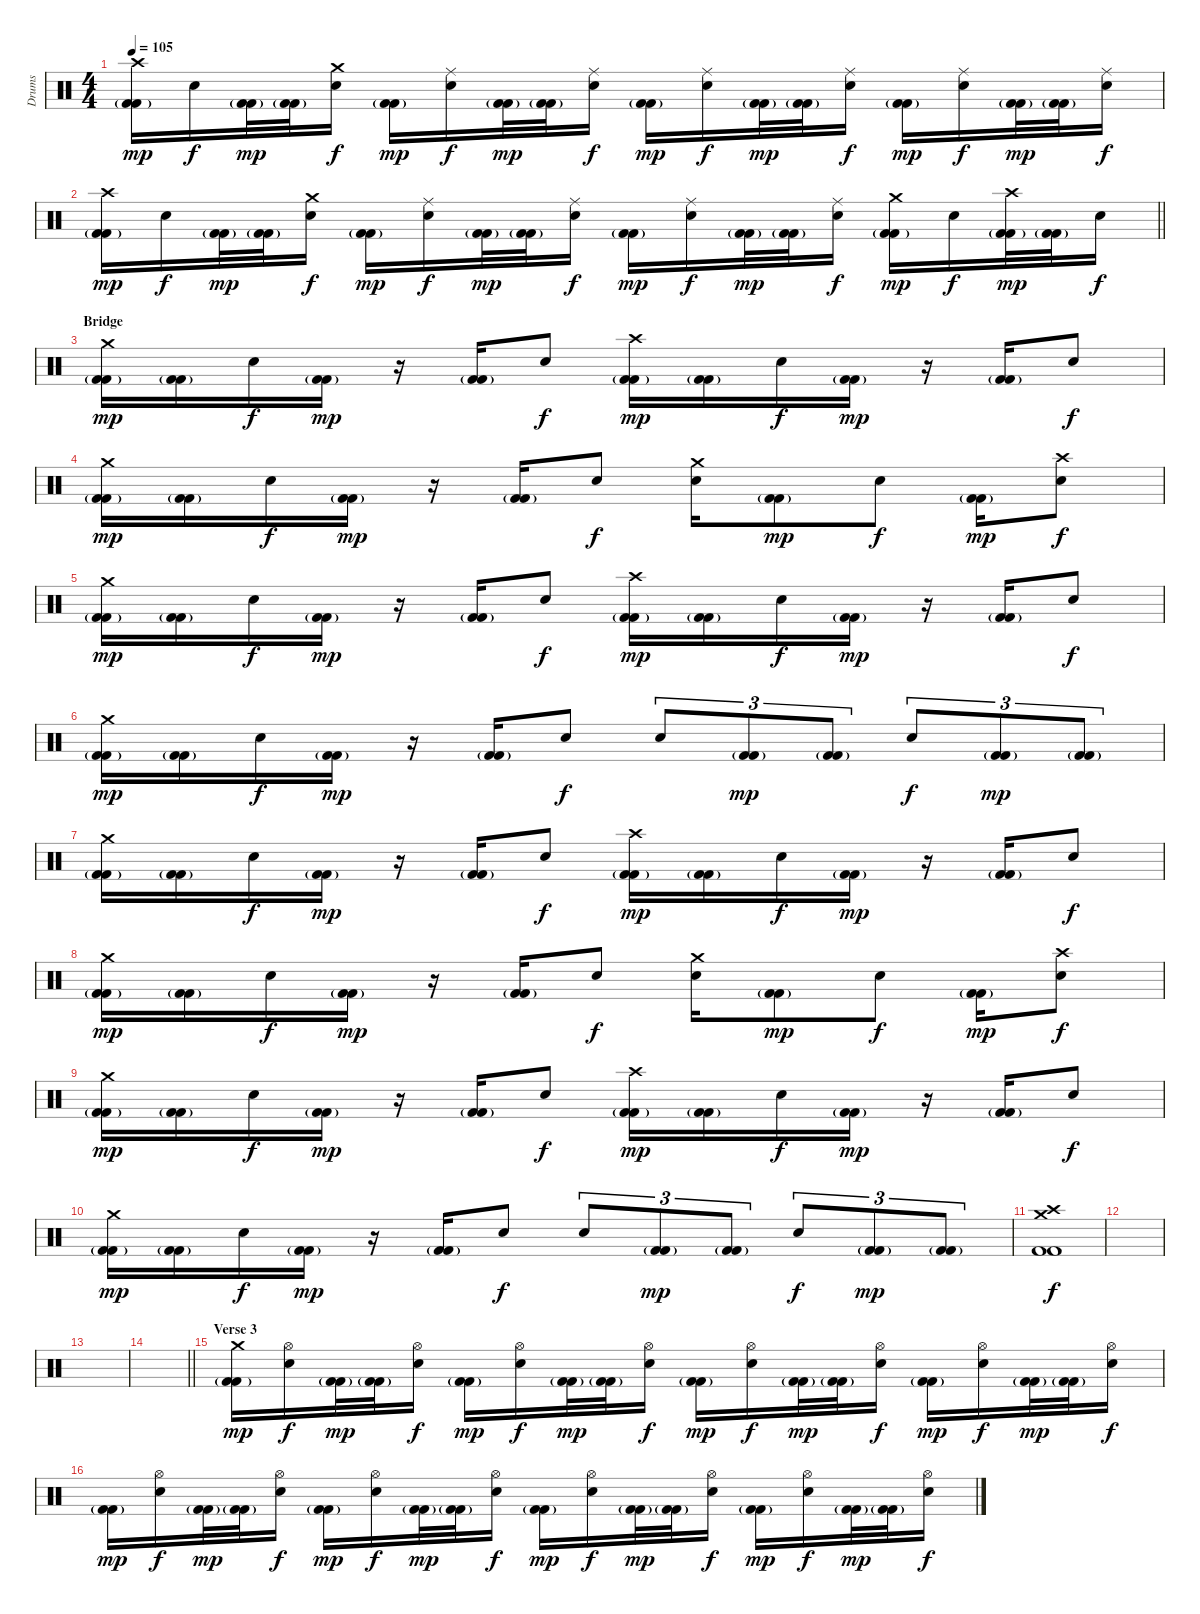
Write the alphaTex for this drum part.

\track ("Drums" "Drums") {instrument percussion}
\staff {score}
\articulation defaults
\ts (4 4)
\tempo 105
\clef neutral
\ks c
("Crash high (hit)" "Kick (hit) 2"{g} "Kick (hit) 2").16{dy mp} "Electric Snare (hit)".16{dy f} ("Kick (hit) 2"{g} "Kick (hit) 2").32{dy mp} ("Kick (hit) 2"{g} "Kick (hit) 2").32 ("Crash medium (hit)" "Electric Snare (hit)").16{dy f} ("Kick (hit) 2"{g} "Kick (hit) 2").16{dy mp} ("Ride (middle)" "Electric Snare (hit)").16{dy f} ("Kick (hit) 2"{g} "Kick (hit) 2").32{dy mp} ("Kick (hit) 2"{g} "Kick (hit) 2").32 ("Ride (middle)" "Electric Snare (hit)").16{dy f} ("Kick (hit) 2"{g} "Kick (hit) 2").16{dy mp} ("Ride (middle)" "Electric Snare (hit)").16{dy f} ("Kick (hit) 2"{g} "Kick (hit) 2").32{dy mp} ("Kick (hit) 2"{g} "Kick (hit) 2").32 ("Ride (middle)" "Electric Snare (hit)").16{dy f} ("Kick (hit) 2"{g} "Kick (hit) 2").16{dy mp} ("Ride (middle)" "Electric Snare (hit)").16{dy f} ("Kick (hit) 2"{g} "Kick (hit) 2").32{dy mp} ("Kick (hit) 2"{g} "Kick (hit) 2").32 ("Ride (middle)" "Electric Snare (hit)").16{dy f} |
\barLineRight lightlight
("Crash high (hit)" "Kick (hit) 2"{g} "Kick (hit) 2").16{dy mp} "Electric Snare (hit)".16{dy f} ("Kick (hit) 2"{g} "Kick (hit) 2").32{dy mp} ("Kick (hit) 2"{g} "Kick (hit) 2").32 ("Crash medium (hit)" "Electric Snare (hit)").16{dy f} ("Kick (hit) 2"{g} "Kick (hit) 2").16{dy mp} ("Ride (middle)" "Electric Snare (hit)").16{dy f} ("Kick (hit) 2"{g} "Kick (hit) 2").32{dy mp} ("Kick (hit) 2"{g} "Kick (hit) 2").32 ("Ride (middle)" "Electric Snare (hit)").16{dy f} ("Kick (hit) 2"{g} "Kick (hit) 2").16{dy mp} ("Ride (middle)" "Electric Snare (hit)").16{dy f} ("Kick (hit) 2"{g} "Kick (hit) 2").32{dy mp} ("Kick (hit) 2"{g} "Kick (hit) 2").32 ("Ride (middle)" "Electric Snare (hit)").16{dy f} ("Crash medium (hit)" "Kick (hit) 2"{g} "Kick (hit) 2").16{dy mp} "Electric Snare (hit)".16{dy f} ("Crash high (hit)" "Kick (hit) 2"{g} "Kick (hit) 2").32{dy mp} ("Kick (hit) 2"{g} "Kick (hit) 2").32 "Electric Snare (hit)".16{dy f} |
\section ("" "Bridge")
("Crash medium (hit)" "Kick (hit) 2"{g} "Kick (hit) 2").16{dy mp} ("Kick (hit) 2"{g} "Kick (hit) 2").16 "Electric Snare (hit)".16{dy f} ("Kick (hit) 2"{g} "Kick (hit) 2").16{dy mp} r.16 ("Kick (hit) 2"{g} "Kick (hit) 2").16 "Electric Snare (hit)".8{dy f} ("Crash high (hit)" "Kick (hit) 2"{g} "Kick (hit) 2").16{dy mp} ("Kick (hit) 2"{g} "Kick (hit) 2").16 "Electric Snare (hit)".16{dy f} ("Kick (hit) 2"{g} "Kick (hit) 2").16{dy mp} r.16 ("Kick (hit) 2"{g} "Kick (hit) 2").16 "Electric Snare (hit)".8{dy f} |
("Crash medium (hit)" "Kick (hit) 2"{g} "Kick (hit) 2").16{dy mp} ("Kick (hit) 2"{g} "Kick (hit) 2").16 "Electric Snare (hit)".16{dy f} ("Kick (hit) 2"{g} "Kick (hit) 2").16{dy mp} r.16 ("Kick (hit) 2"{g} "Kick (hit) 2").16 "Electric Snare (hit)".8{dy f} ("Crash medium (hit)" "Electric Snare (hit)").16 ("Kick (hit) 2"{g} "Kick (hit) 2").8{dy mp} "Electric Snare (hit)".8{dy f} ("Kick (hit) 2"{g} "Kick (hit) 2").16{dy mp} ("Crash high (hit)" "Electric Snare (hit)").8{dy f} |
("Crash medium (hit)" "Kick (hit) 2"{g} "Kick (hit) 2").16{dy mp} ("Kick (hit) 2"{g} "Kick (hit) 2").16 "Electric Snare (hit)".16{dy f} ("Kick (hit) 2"{g} "Kick (hit) 2").16{dy mp} r.16 ("Kick (hit) 2"{g} "Kick (hit) 2").16 "Electric Snare (hit)".8{dy f} ("Crash high (hit)" "Kick (hit) 2"{g} "Kick (hit) 2").16{dy mp} ("Kick (hit) 2"{g} "Kick (hit) 2").16 "Electric Snare (hit)".16{dy f} ("Kick (hit) 2"{g} "Kick (hit) 2").16{dy mp} r.16 ("Kick (hit) 2"{g} "Kick (hit) 2").16 "Electric Snare (hit)".8{dy f} |
("Crash medium (hit)" "Kick (hit) 2"{g} "Kick (hit) 2").16{dy mp} ("Kick (hit) 2"{g} "Kick (hit) 2").16 "Electric Snare (hit)".16{dy f} ("Kick (hit) 2"{g} "Kick (hit) 2").16{dy mp} r.16 ("Kick (hit) 2"{g} "Kick (hit) 2").16 "Electric Snare (hit)".8{dy f} "Electric Snare (hit)".8{tu (3 2)} ("Kick (hit) 2"{g} "Kick (hit) 2").8{tu (3 2) dy mp} ("Kick (hit) 2"{g} "Kick (hit) 2").8{tu (3 2)} "Electric Snare (hit)".8{tu (3 2) dy f} ("Kick (hit) 2"{g} "Kick (hit) 2").8{tu (3 2) dy mp} ("Kick (hit) 2"{g} "Kick (hit) 2").8{tu (3 2)} |
("Crash medium (hit)" "Kick (hit) 2"{g} "Kick (hit) 2").16 ("Kick (hit) 2"{g} "Kick (hit) 2").16 "Electric Snare (hit)".16{dy f} ("Kick (hit) 2"{g} "Kick (hit) 2").16{dy mp} r.16 ("Kick (hit) 2"{g} "Kick (hit) 2").16 "Electric Snare (hit)".8{dy f} ("Crash high (hit)" "Kick (hit) 2"{g} "Kick (hit) 2").16{dy mp} ("Kick (hit) 2"{g} "Kick (hit) 2").16 "Electric Snare (hit)".16{dy f} ("Kick (hit) 2"{g} "Kick (hit) 2").16{dy mp} r.16 ("Kick (hit) 2"{g} "Kick (hit) 2").16 "Electric Snare (hit)".8{dy f} |
("Crash medium (hit)" "Kick (hit) 2"{g} "Kick (hit) 2").16{dy mp} ("Kick (hit) 2"{g} "Kick (hit) 2").16 "Electric Snare (hit)".16{dy f} ("Kick (hit) 2"{g} "Kick (hit) 2").16{dy mp} r.16 ("Kick (hit) 2"{g} "Kick (hit) 2").16 "Electric Snare (hit)".8{dy f} ("Crash medium (hit)" "Electric Snare (hit)").16 ("Kick (hit) 2"{g} "Kick (hit) 2").8{dy mp} "Electric Snare (hit)".8{dy f} ("Kick (hit) 2"{g} "Kick (hit) 2").16{dy mp} ("Crash high (hit)" "Electric Snare (hit)").8{dy f} |
("Crash medium (hit)" "Kick (hit) 2"{g} "Kick (hit) 2").16{dy mp} ("Kick (hit) 2"{g} "Kick (hit) 2").16 "Electric Snare (hit)".16{dy f} ("Kick (hit) 2"{g} "Kick (hit) 2").16{dy mp} r.16 ("Kick (hit) 2"{g} "Kick (hit) 2").16 "Electric Snare (hit)".8{dy f} ("Crash high (hit)" "Kick (hit) 2"{g} "Kick (hit) 2").16{dy mp} ("Kick (hit) 2"{g} "Kick (hit) 2").16 "Electric Snare (hit)".16{dy f} ("Kick (hit) 2"{g} "Kick (hit) 2").16{dy mp} r.16 ("Kick (hit) 2"{g} "Kick (hit) 2").16 "Electric Snare (hit)".8{dy f} |
("Crash medium (hit)" "Kick (hit) 2"{g} "Kick (hit) 2").16{dy mp} ("Kick (hit) 2"{g} "Kick (hit) 2").16 "Electric Snare (hit)".16{dy f} ("Kick (hit) 2"{g} "Kick (hit) 2").16{dy mp} r.16 ("Kick (hit) 2"{g} "Kick (hit) 2").16 "Electric Snare (hit)".8{dy f} "Electric Snare (hit)".8{tu (3 2)} ("Kick (hit) 2"{g} "Kick (hit) 2").8{tu (3 2) dy mp} ("Kick (hit) 2"{g} "Kick (hit) 2").8{tu (3 2)} "Electric Snare (hit)".8{tu (3 2) dy f} ("Kick (hit) 2"{g} "Kick (hit) 2").8{tu (3 2) dy mp} ("Kick (hit) 2"{g} "Kick (hit) 2").8{tu (3 2)} |
("Crash high (hit)" "Crash medium (hit)" "Kick (hit) 2" "Kick (hit) 2").1{dy f} |
|
|
\barLineRight lightlight
|
\section ("" "Verse 3")
("Crash medium (hit)" "Kick (hit) 2"{g} "Kick (hit) 2").16{dy mp} ("Hi-Hat (open)" "Electric Snare (hit)").16{dy f} ("Kick (hit) 2"{g} "Kick (hit) 2").32{dy mp} ("Kick (hit) 2"{g} "Kick (hit) 2").32 ("Hi-Hat (open)" "Electric Snare (hit)").16{dy f} ("Kick (hit) 2"{g} "Kick (hit) 2").16{dy mp} ("Hi-Hat (open)" "Electric Snare (hit)").16{dy f} ("Kick (hit) 2"{g} "Kick (hit) 2").32{dy mp} ("Kick (hit) 2"{g} "Kick (hit) 2").32 ("Hi-Hat (open)" "Electric Snare (hit)").16{dy f} ("Kick (hit) 2"{g} "Kick (hit) 2").16{dy mp} ("Hi-Hat (open)" "Electric Snare (hit)").16{dy f} ("Kick (hit) 2"{g} "Kick (hit) 2").32{dy mp} ("Kick (hit) 2"{g} "Kick (hit) 2").32 ("Hi-Hat (open)" "Electric Snare (hit)").16{dy f} ("Kick (hit) 2"{g} "Kick (hit) 2").16{dy mp} ("Hi-Hat (open)" "Electric Snare (hit)").16{dy f} ("Kick (hit) 2"{g} "Kick (hit) 2").32{dy mp} ("Kick (hit) 2"{g} "Kick (hit) 2").32 ("Hi-Hat (open)" "Electric Snare (hit)").16{dy f} |
("Kick (hit) 2"{g} "Kick (hit) 2").16{dy mp} ("Hi-Hat (open)" "Electric Snare (hit)").16{dy f} ("Kick (hit) 2"{g} "Kick (hit) 2").32{dy mp} ("Kick (hit) 2"{g} "Kick (hit) 2").32 ("Hi-Hat (open)" "Electric Snare (hit)").16{dy f} ("Kick (hit) 2"{g} "Kick (hit) 2").16{dy mp} ("Hi-Hat (open)" "Electric Snare (hit)").16{dy f} ("Kick (hit) 2"{g} "Kick (hit) 2").32{dy mp} ("Kick (hit) 2"{g} "Kick (hit) 2").32 ("Hi-Hat (open)" "Electric Snare (hit)").16{dy f} ("Kick (hit) 2"{g} "Kick (hit) 2").16{dy mp} ("Hi-Hat (open)" "Electric Snare (hit)").16{dy f} ("Kick (hit) 2"{g} "Kick (hit) 2").32{dy mp} ("Kick (hit) 2"{g} "Kick (hit) 2").32 ("Hi-Hat (open)" "Electric Snare (hit)").16{dy f} ("Kick (hit) 2"{g} "Kick (hit) 2").16{dy mp} ("Hi-Hat (open)" "Electric Snare (hit)").16{dy f} ("Kick (hit) 2"{g} "Kick (hit) 2").32{dy mp} ("Kick (hit) 2"{g} "Kick (hit) 2").32 ("Hi-Hat (open)" "Electric Snare (hit)").16{dy f}
